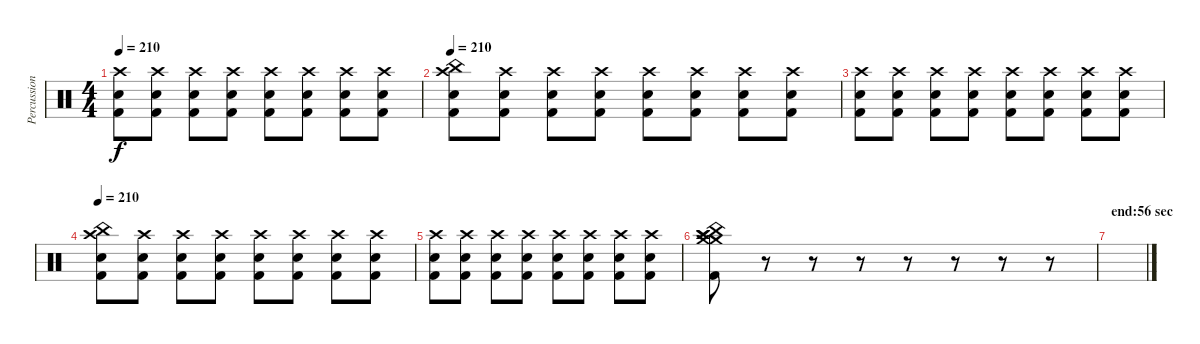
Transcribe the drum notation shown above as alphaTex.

\track ("Percussion" "Percussion") {instrument percussion}
\staff {score}
\articulation defaults
\ts (4 4)
\tempo 210
\clef neutral
\ks c
("Crash high (hit)" "Snare (hit) 2" "Kick (hit) 2").8{dy f} ("Crash high (hit)" "Snare (hit) 2" "Kick (hit) 2").8 ("Crash high (hit)" "Snare (hit) 2" "Kick (hit) 2").8 ("Crash high (hit)" "Snare (hit) 2" "Kick (hit) 2").8 ("Crash high (hit)" "Snare (hit) 2" "Kick (hit) 2").8 ("Crash high (hit)" "Snare (hit) 2" "Kick (hit) 2").8 ("Crash high (hit)" "Snare (hit) 2" "Kick (hit) 2").8 ("Crash high (hit)" "Snare (hit) 2" "Kick (hit) 2").8 |
\tempo 210
("China (hit)" "Crash high (hit)" "Snare (hit) 2" "Kick (hit) 2").8 ("Crash high (hit)" "Snare (hit) 2" "Kick (hit) 2").8 ("Crash high (hit)" "Snare (hit) 2" "Kick (hit) 2").8 ("Crash high (hit)" "Snare (hit) 2" "Kick (hit) 2").8 ("Crash high (hit)" "Snare (hit) 2" "Kick (hit) 2").8 ("Crash high (hit)" "Snare (hit) 2" "Kick (hit) 2").8 ("Crash high (hit)" "Snare (hit) 2" "Kick (hit) 2").8 ("Crash high (hit)" "Snare (hit) 2" "Kick (hit) 2").8 |
("Crash high (hit)" "Snare (hit) 2" "Kick (hit) 2").8 ("Crash high (hit)" "Snare (hit) 2" "Kick (hit) 2").8 ("Crash high (hit)" "Snare (hit) 2" "Kick (hit) 2").8 ("Crash high (hit)" "Snare (hit) 2" "Kick (hit) 2").8 ("Crash high (hit)" "Snare (hit) 2" "Kick (hit) 2").8 ("Crash high (hit)" "Snare (hit) 2" "Kick (hit) 2").8 ("Crash high (hit)" "Snare (hit) 2" "Kick (hit) 2").8 ("Crash high (hit)" "Snare (hit) 2" "Kick (hit) 2").8 |
\tempo 210
("China (hit)" "Crash high (hit)" "Snare (hit) 2" "Kick (hit) 2").8 ("Crash high (hit)" "Snare (hit) 2" "Kick (hit) 2").8 ("Crash high (hit)" "Snare (hit) 2" "Kick (hit) 2").8 ("Crash high (hit)" "Snare (hit) 2" "Kick (hit) 2").8 ("Crash high (hit)" "Snare (hit) 2" "Kick (hit) 2").8 ("Crash high (hit)" "Snare (hit) 2" "Kick (hit) 2").8 ("Crash high (hit)" "Snare (hit) 2" "Kick (hit) 2").8 ("Crash high (hit)" "Snare (hit) 2" "Kick (hit) 2").8 |
("Crash high (hit)" "Snare (hit) 2" "Kick (hit) 2").8 ("Crash high (hit)" "Snare (hit) 2" "Kick (hit) 2").8 ("Crash high (hit)" "Snare (hit) 2" "Kick (hit) 2").8 ("Crash high (hit)" "Snare (hit) 2" "Kick (hit) 2").8 ("Crash high (hit)" "Snare (hit) 2" "Kick (hit) 2").8 ("Crash high (hit)" "Snare (hit) 2" "Kick (hit) 2").8 ("Crash high (hit)" "Snare (hit) 2" "Kick (hit) 2").8 ("Crash high (hit)" "Snare (hit) 2" "Kick (hit) 2").8 |
("Crash medium (hit)" "Crash medium (hit)" "China (hit)" "Crash high (hit)" "Crash high (hit)" "Kick (hit) 2").8 r.8{volume 16} r.8{volume 16} r.8 r.8 r.8 r.8 r.8 |
\section ("" "end:56 sec")
